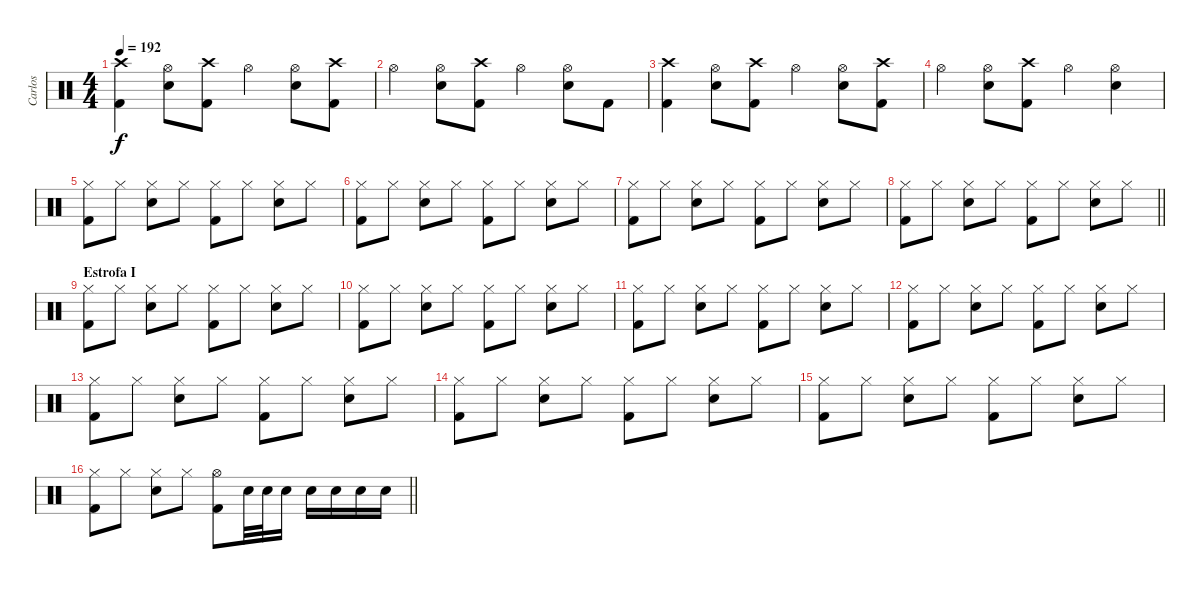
\track ("Carlos" "Carlos") {instrument percussion}
\staff {score}
\articulation defaults
\ts (4 4)
\tempo 192
\clef neutral
\ks c
("Crash high (hit)" "Kick (hit) 2").4{dy f} ("Hi-Hat (open)" "Snare (hit) 2").8 ("Crash high (hit)" "Kick (hit) 2").8 "Hi-Hat (open)".4 ("Hi-Hat (open)" "Snare (hit) 2").8 ("Crash high (hit)" "Kick (hit) 2").8 |
"Hi-Hat (open)".4 ("Hi-Hat (open)" "Snare (hit) 2").8 ("Crash high (hit)" "Kick (hit) 2").8 "Hi-Hat (open)".4 ("Hi-Hat (open)" "Snare (hit) 2").8 "Kick (hit) 2".8 |
("Crash high (hit)" "Kick (hit) 2").4 ("Hi-Hat (open)" "Snare (hit) 2").8 ("Crash high (hit)" "Kick (hit) 2").8 "Hi-Hat (open)".4 ("Hi-Hat (open)" "Snare (hit) 2").8 ("Crash high (hit)" "Kick (hit) 2").8 |
"Hi-Hat (open)".4 ("Hi-Hat (open)" "Snare (hit) 2").8 ("Crash high (hit)" "Kick (hit) 2").8 "Hi-Hat (open)".4 ("Hi-Hat (open)" "Snare (hit) 2").4 |
("Hi-Hat (closed)" "Kick (hit) 2").8 "Hi-Hat (closed)".8 ("Hi-Hat (closed)" "Snare (hit) 2").8 "Hi-Hat (closed)".8 ("Hi-Hat (closed)" "Kick (hit) 2").8 "Hi-Hat (closed)".8 ("Hi-Hat (closed)" "Snare (hit) 2").8 "Hi-Hat (closed)".8 |
("Hi-Hat (closed)" "Kick (hit) 2").8 "Hi-Hat (closed)".8 ("Hi-Hat (closed)" "Snare (hit) 2").8 "Hi-Hat (closed)".8 ("Hi-Hat (closed)" "Kick (hit) 2").8 "Hi-Hat (closed)".8 ("Hi-Hat (closed)" "Snare (hit) 2").8 "Hi-Hat (closed)".8 |
("Hi-Hat (closed)" "Kick (hit) 2").8 "Hi-Hat (closed)".8 ("Hi-Hat (closed)" "Snare (hit) 2").8 "Hi-Hat (closed)".8 ("Hi-Hat (closed)" "Kick (hit) 2").8 "Hi-Hat (closed)".8 ("Hi-Hat (closed)" "Snare (hit) 2").8 "Hi-Hat (closed)".8 |
\barLineRight lightlight
("Hi-Hat (closed)" "Kick (hit) 2").8 "Hi-Hat (closed)".8 ("Hi-Hat (closed)" "Snare (hit) 2").8 "Hi-Hat (closed)".8 ("Hi-Hat (closed)" "Kick (hit) 2").8 "Hi-Hat (closed)".8 ("Hi-Hat (closed)" "Snare (hit) 2").8 "Hi-Hat (closed)".8 |
\section ("" "Estrofa I")
("Hi-Hat (closed)" "Kick (hit) 2").8 "Hi-Hat (closed)".8 ("Hi-Hat (closed)" "Snare (hit) 2").8 "Hi-Hat (closed)".8 ("Hi-Hat (closed)" "Kick (hit) 2").8 "Hi-Hat (closed)".8 ("Hi-Hat (closed)" "Snare (hit) 2").8 "Hi-Hat (closed)".8 |
("Hi-Hat (closed)" "Kick (hit) 2").8 "Hi-Hat (closed)".8 ("Hi-Hat (closed)" "Snare (hit) 2").8 "Hi-Hat (closed)".8 ("Hi-Hat (closed)" "Kick (hit) 2").8 "Hi-Hat (closed)".8 ("Hi-Hat (closed)" "Snare (hit) 2").8 "Hi-Hat (closed)".8 |
("Hi-Hat (closed)" "Kick (hit) 2").8 "Hi-Hat (closed)".8 ("Hi-Hat (closed)" "Snare (hit) 2").8 "Hi-Hat (closed)".8 ("Hi-Hat (closed)" "Kick (hit) 2").8 "Hi-Hat (closed)".8 ("Hi-Hat (closed)" "Snare (hit) 2").8 "Hi-Hat (closed)".8 |
("Hi-Hat (closed)" "Kick (hit) 2").8 "Hi-Hat (closed)".8 ("Hi-Hat (closed)" "Snare (hit) 2").8 "Hi-Hat (closed)".8 ("Hi-Hat (closed)" "Kick (hit) 2").8 "Hi-Hat (closed)".8 ("Hi-Hat (closed)" "Snare (hit) 2").8 "Hi-Hat (closed)".8 |
("Hi-Hat (closed)" "Kick (hit) 2").8 "Hi-Hat (closed)".8 ("Hi-Hat (closed)" "Snare (hit) 2").8 "Hi-Hat (closed)".8 ("Hi-Hat (closed)" "Kick (hit) 2").8 "Hi-Hat (closed)".8 ("Hi-Hat (closed)" "Snare (hit) 2").8 "Hi-Hat (closed)".8 |
("Hi-Hat (closed)" "Kick (hit) 2").8 "Hi-Hat (closed)".8 ("Hi-Hat (closed)" "Snare (hit) 2").8 "Hi-Hat (closed)".8 ("Hi-Hat (closed)" "Kick (hit) 2").8 "Hi-Hat (closed)".8 ("Hi-Hat (closed)" "Snare (hit) 2").8 "Hi-Hat (closed)".8 |
("Hi-Hat (closed)" "Kick (hit) 2").8 "Hi-Hat (closed)".8 ("Hi-Hat (closed)" "Snare (hit) 2").8 "Hi-Hat (closed)".8 ("Hi-Hat (closed)" "Kick (hit) 2").8 "Hi-Hat (closed)".8 ("Hi-Hat (closed)" "Snare (hit) 2").8 "Hi-Hat (closed)".8 |
\barLineRight lightlight
("Hi-Hat (closed)" "Kick (hit) 2").8 "Hi-Hat (closed)".8 ("Hi-Hat (closed)" "Snare (hit) 2").8 "Hi-Hat (closed)".8 ("Hi-Hat (open)" "Kick (hit) 2").8 "Snare (hit) 2".32 "Snare (hit) 2".32 "Snare (hit) 2".16 "Snare (hit) 2".16 "Snare (hit) 2".16 "Snare (hit) 2".16 "Snare (hit) 2".16
